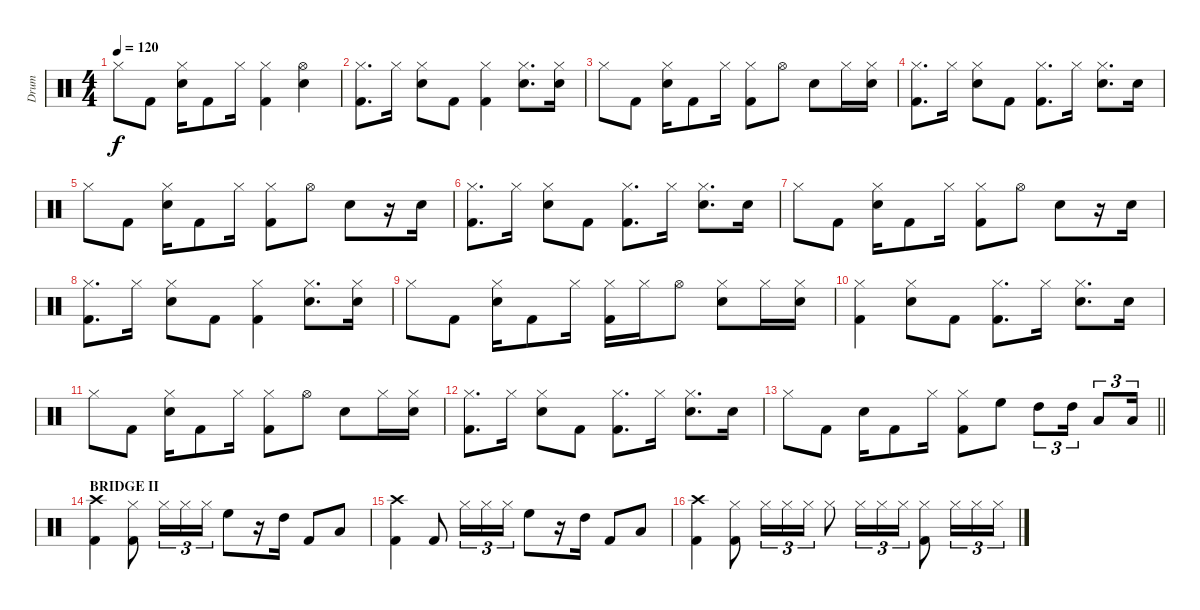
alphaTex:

\track ("Drum" "Drum") {instrument percussion}
\staff {score}
\articulation defaults
\ts (4 4)
\tempo 120
\clef neutral
\ks c "Hi-Hat (closed)".8{dy f} "Kick (hit) 2".8
("Snare (hit) 2" "Hi-Hat (closed)").16 "Kick (hit) 2".8 "Hi-Hat (closed)".16 ("Kick (hit) 2" "Hi-Hat (closed)").4 ("Snare (hit) 2" "Hi-Hat (open)").4 |
("Kick (hit) 2" "Hi-Hat (closed)").8{d} "Hi-Hat (closed)".16 ("Snare (hit) 2" "Hi-Hat (closed)").8 "Kick (hit) 2".8 ("Kick (hit) 2" "Hi-Hat (closed)").4 ("Snare (hit) 2" "Hi-Hat (closed)").8{d} ("Snare (hit) 2" "Hi-Hat (closed)").16 |
"Hi-Hat (closed)".8 "Kick (hit) 2".8 ("Snare (hit) 2" "Hi-Hat (closed)").16 "Kick (hit) 2".8 "Hi-Hat (closed)".16 ("Kick (hit) 2" "Hi-Hat (closed)").8 "Hi-Hat (open)".8 "Snare (hit) 2".8 "Hi-Hat (closed)".16 ("Snare (hit) 2" "Hi-Hat (closed)").16 |
("Kick (hit) 2" "Hi-Hat (closed)").8{d} "Hi-Hat (closed)".16 ("Snare (hit) 2" "Hi-Hat (closed)").8 "Kick (hit) 2".8 ("Kick (hit) 2" "Hi-Hat (closed)").8{d} "Hi-Hat (closed)".16 ("Snare (hit) 2" "Hi-Hat (closed)").8{d} "Snare (hit) 2".16 |
"Hi-Hat (closed)".8 "Kick (hit) 2".8 ("Snare (hit) 2" "Hi-Hat (closed)").16 "Kick (hit) 2".8 "Hi-Hat (closed)".16 ("Kick (hit) 2" "Hi-Hat (closed)").8 "Hi-Hat (open)".8 "Snare (hit) 2".8 r.16 "Snare (hit) 2".16 |
("Kick (hit) 2" "Hi-Hat (closed)").8{d} "Hi-Hat (closed)".16 ("Snare (hit) 2" "Hi-Hat (closed)").8 "Kick (hit) 2".8 ("Kick (hit) 2" "Hi-Hat (closed)").8{d} "Hi-Hat (closed)".16 ("Snare (hit) 2" "Hi-Hat (closed)").8{d} "Snare (hit) 2".16 |
"Hi-Hat (closed)".8 "Kick (hit) 2".8 ("Snare (hit) 2" "Hi-Hat (closed)").16 "Kick (hit) 2".8 "Hi-Hat (closed)".16 ("Kick (hit) 2" "Hi-Hat (closed)").8 "Hi-Hat (open)".8 "Snare (hit) 2".8 r.16 "Snare (hit) 2".16 |
("Kick (hit) 2" "Hi-Hat (closed)").8{d} "Hi-Hat (closed)".16 ("Snare (hit) 2" "Hi-Hat (closed)").8 "Kick (hit) 2".8 ("Kick (hit) 2" "Hi-Hat (closed)").4 ("Snare (hit) 2" "Hi-Hat (closed)").8{d} ("Snare (hit) 2" "Hi-Hat (closed)").16 |
"Hi-Hat (closed)".8 "Kick (hit) 2".8 ("Snare (hit) 2" "Hi-Hat (closed)").16 "Kick (hit) 2".8 "Hi-Hat (closed)".16 ("Kick (hit) 2" "Hi-Hat (closed)").16 "Hi-Hat (closed)".16 "Hi-Hat (open)".8 ("Snare (hit) 2" "Hi-Hat (closed)").8 "Hi-Hat (closed)".16 ("Snare (hit) 2" "Hi-Hat (closed)").16 |
("Kick (hit) 2" "Hi-Hat (closed)").4 ("Snare (hit) 2" "Hi-Hat (closed)").8 "Kick (hit) 2".8 ("Kick (hit) 2" "Hi-Hat (closed)").8{d} "Hi-Hat (closed)".16 ("Snare (hit) 2" "Hi-Hat (closed)").8{d} "Snare (hit) 2".16 |
"Hi-Hat (closed)".8 "Kick (hit) 2".8 ("Snare (hit) 2" "Hi-Hat (closed)").16 "Kick (hit) 2".8 "Hi-Hat (closed)".16 ("Kick (hit) 2" "Hi-Hat (closed)").8 "Hi-Hat (open)".8 "Snare (hit) 2".8 "Hi-Hat (closed)".16 ("Snare (hit) 2" "Hi-Hat (closed)").16 |
("Kick (hit) 2" "Hi-Hat (closed)").8{d} "Hi-Hat (closed)".16 ("Snare (hit) 2" "Hi-Hat (closed)").8 "Kick (hit) 2".8 ("Kick (hit) 2" "Hi-Hat (closed)").8{d} "Hi-Hat (closed)".16 ("Snare (hit) 2" "Hi-Hat (closed)").8{d} "Snare (hit) 2".16 |
\barLineRight lightlight "Hi-Hat (closed)".8 "Kick (hit) 2".8 "Snare (hit) 2".16 "Kick (hit) 2".8 "Hi-Hat (closed)".16
("Kick (hit) 2" "Hi-Hat (closed)").8 "High Floor Tom (hit)".8 "High Tom (hit)".8{tu (3 2)} "High Tom (hit)".16{tu (3 2)} "Low Tom (hit)".8{tu (3 2)} "Low Tom (hit)".16{tu (3 2)} |
\section ("" "BRIDGE II")
("Kick (hit) 2" "Crash high (hit)").4 ("Kick (hit) 2" "Hi-Hat (closed)").8 "Hi-Hat (closed)".16{tu (3 2)} "Hi-Hat (closed)".16{tu (3 2)} "Hi-Hat (closed)".16{tu (3 2)} "High Floor Tom (hit)".8 r.16 "High Tom (hit)".16 "Kick (hit) 2".8 "Low Tom (hit)".8 |
("Kick (hit) 2" "Crash high (hit)").4 "Kick (hit) 2".8 "Hi-Hat (closed)".16{tu (3 2)} "Hi-Hat (closed)".16{tu (3 2)} "Hi-Hat (closed)".16{tu (3 2)} "High Floor Tom (hit)".8 r.16 "High Tom (hit)".16 "Kick (hit) 2".8 "Low Tom (hit)".8 |
("Kick (hit) 2" "Crash high (hit)").4 ("Kick (hit) 2" "Hi-Hat (closed)").8 "Hi-Hat (closed)".16{tu (3 2)} "Hi-Hat (closed)".16{tu (3 2)} "Hi-Hat (closed)".16{tu (3 2)} "Hi-Hat (closed)".8 "Hi-Hat (closed)".16{tu (3 2)} "Hi-Hat (closed)".16{tu (3 2)} "Hi-Hat (closed)".16{tu (3 2)} ("Kick (hit) 2" "Hi-Hat (closed)").8 "Hi-Hat (closed)".16{tu (3 2)} "Hi-Hat (closed)".16{tu (3 2)} "Hi-Hat (closed)".16{tu (3 2)}
